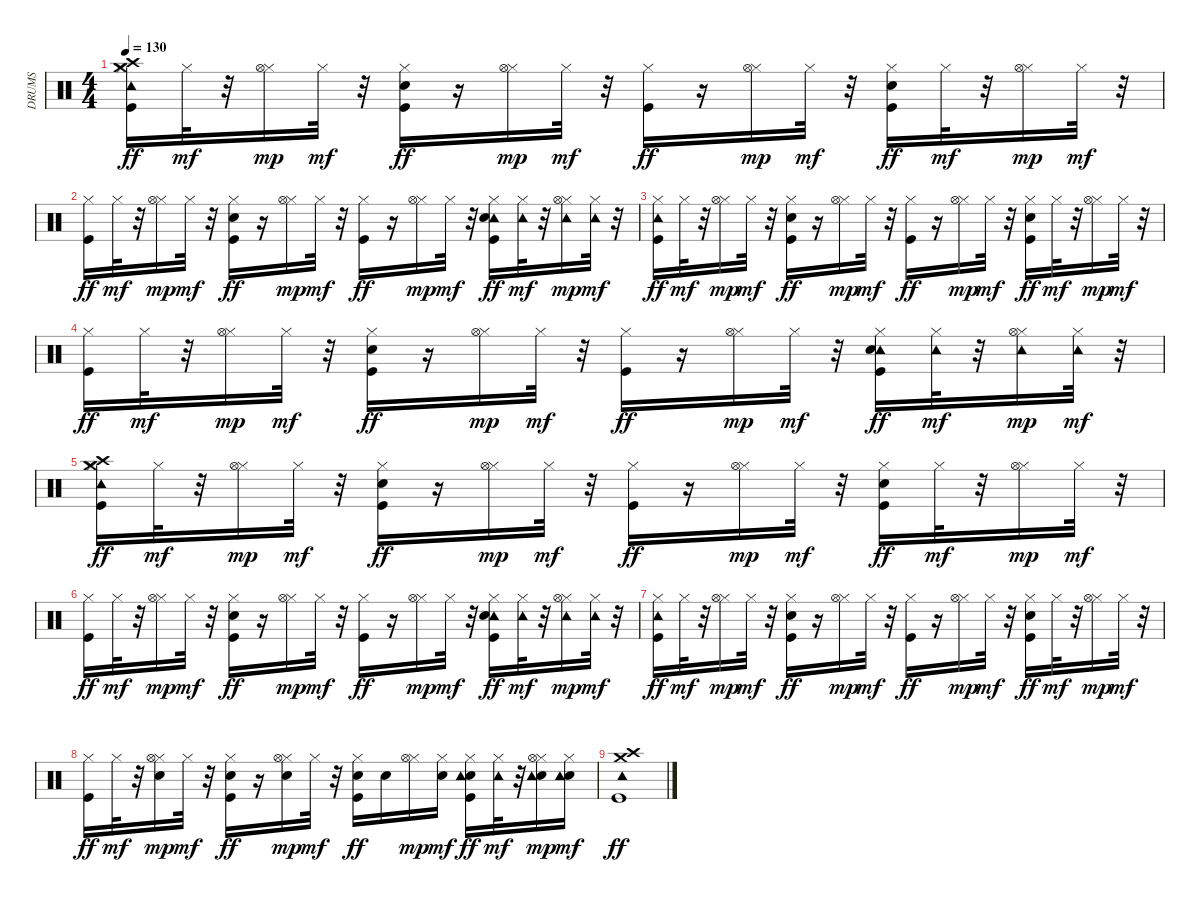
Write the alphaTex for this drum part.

\track ("DRUMS" "DRUMS") {instrument percussion}
\staff {score}
\articulation defaults
\ts (4 4)
\tempo 130
\clef neutral
\ks c
("Tambourine (hit)" "Crash high (hit)" "Crash medium (hit)" "Hi-Hat (closed)" "Kick (hit)").16{dy ff} "Hi-Hat (closed)".32{dy mf} r.32 ("Hi-Hat (closed)" "Hi-Hat (open)").16{dy mp} "Hi-Hat (closed)".32{dy mf} r.32 ("Electric Snare (hit)" "Hi-Hat (closed)" "Kick (hit)").16{dy ff} r.16 ("Hi-Hat (closed)" "Hi-Hat (open)").16{dy mp} "Hi-Hat (closed)".32{dy mf} r.32 ("Hi-Hat (closed)" "Kick (hit)").16{dy ff} r.16 ("Hi-Hat (closed)" "Hi-Hat (open)").16{dy mp} "Hi-Hat (closed)".32{dy mf} r.32 ("Electric Snare (hit)" "Hi-Hat (closed)" "Kick (hit)").16{dy ff} "Hi-Hat (closed)".32{dy mf} r.32 ("Hi-Hat (closed)" "Hi-Hat (open)").16{dy mp} "Hi-Hat (closed)".32{dy mf} r.32 |
("Hi-Hat (closed)" "Kick (hit)").16{dy ff} "Hi-Hat (closed)".32{dy mf} r.32 ("Hi-Hat (closed)" "Hi-Hat (open)").16{dy mp} "Hi-Hat (closed)".32{dy mf} r.32 ("Electric Snare (hit)" "Hi-Hat (closed)" "Kick (hit)").16{dy ff} r.16 ("Hi-Hat (closed)" "Hi-Hat (open)").16{dy mp} "Hi-Hat (closed)".32{dy mf} r.32 ("Hi-Hat (closed)" "Kick (hit)").16{dy ff} r.16 ("Hi-Hat (closed)" "Hi-Hat (open)").16{dy mp} "Hi-Hat (closed)".32{dy mf} r.32 ("Tambourine (hit)" "Electric Snare (hit)" "Hi-Hat (closed)" "Kick (hit)").16{dy ff} ("Tambourine (hit)" "Hi-Hat (closed)").32{dy mf} r.32 ("Tambourine (hit)" "Hi-Hat (closed)" "Hi-Hat (open)").16{dy mp} ("Tambourine (hit)" "Hi-Hat (closed)").32{dy mf} r.32 |
("Tambourine (hit)" "Hi-Hat (closed)" "Kick (hit)").16{dy ff} "Hi-Hat (closed)".32{dy mf} r.32 ("Hi-Hat (closed)" "Hi-Hat (open)").16{dy mp} "Hi-Hat (closed)".32{dy mf} r.32 ("Electric Snare (hit)" "Hi-Hat (closed)" "Kick (hit)").16{dy ff} r.16 ("Hi-Hat (closed)" "Hi-Hat (open)").16{dy mp} "Hi-Hat (closed)".32{dy mf} r.32 ("Hi-Hat (closed)" "Kick (hit)").16{dy ff} r.16 ("Hi-Hat (closed)" "Hi-Hat (open)").16{dy mp} "Hi-Hat (closed)".32{dy mf} r.32 ("Electric Snare (hit)" "Hi-Hat (closed)" "Kick (hit)").16{dy ff} "Hi-Hat (closed)".32{dy mf} r.32 ("Hi-Hat (closed)" "Hi-Hat (open)").16{dy mp} "Hi-Hat (closed)".32{dy mf} r.32 |
("Hi-Hat (closed)" "Kick (hit)").16{dy ff} "Hi-Hat (closed)".32{dy mf} r.32 ("Hi-Hat (closed)" "Hi-Hat (open)").16{dy mp} "Hi-Hat (closed)".32{dy mf} r.32 ("Electric Snare (hit)" "Hi-Hat (closed)" "Kick (hit)").16{dy ff} r.16 ("Hi-Hat (closed)" "Hi-Hat (open)").16{dy mp} "Hi-Hat (closed)".32{dy mf} r.32 ("Hi-Hat (closed)" "Kick (hit)").16{dy ff} r.16 ("Hi-Hat (closed)" "Hi-Hat (open)").16{dy mp} "Hi-Hat (closed)".32{dy mf} r.32 ("Tambourine (hit)" "Electric Snare (hit)" "Hi-Hat (closed)" "Kick (hit)").16{dy ff} ("Tambourine (hit)" "Hi-Hat (closed)").32{dy mf} r.32 ("Tambourine (hit)" "Hi-Hat (closed)" "Hi-Hat (open)").16{dy mp} ("Tambourine (hit)" "Hi-Hat (closed)").32{dy mf} r.32 |
("Tambourine (hit)" "Crash high (hit)" "Crash medium (hit)" "Hi-Hat (closed)" "Kick (hit)").16{dy ff} "Hi-Hat (closed)".32{dy mf} r.32 ("Hi-Hat (closed)" "Hi-Hat (open)").16{dy mp} "Hi-Hat (closed)".32{dy mf} r.32 ("Electric Snare (hit)" "Hi-Hat (closed)" "Kick (hit)").16{dy ff} r.16 ("Hi-Hat (closed)" "Hi-Hat (open)").16{dy mp} "Hi-Hat (closed)".32{dy mf} r.32 ("Hi-Hat (closed)" "Kick (hit)").16{dy ff} r.16 ("Hi-Hat (closed)" "Hi-Hat (open)").16{dy mp} "Hi-Hat (closed)".32{dy mf} r.32 ("Electric Snare (hit)" "Hi-Hat (closed)" "Kick (hit)").16{dy ff} "Hi-Hat (closed)".32{dy mf} r.32 ("Hi-Hat (closed)" "Hi-Hat (open)").16{dy mp} "Hi-Hat (closed)".32{dy mf} r.32 |
("Hi-Hat (closed)" "Kick (hit)").16{dy ff} "Hi-Hat (closed)".32{dy mf} r.32 ("Hi-Hat (closed)" "Hi-Hat (open)").16{dy mp} "Hi-Hat (closed)".32{dy mf} r.32 ("Electric Snare (hit)" "Hi-Hat (closed)" "Kick (hit)").16{dy ff} r.16 ("Hi-Hat (closed)" "Hi-Hat (open)").16{dy mp} "Hi-Hat (closed)".32{dy mf} r.32 ("Hi-Hat (closed)" "Kick (hit)").16{dy ff} r.16 ("Hi-Hat (closed)" "Hi-Hat (open)").16{dy mp} "Hi-Hat (closed)".32{dy mf} r.32 ("Tambourine (hit)" "Electric Snare (hit)" "Hi-Hat (closed)" "Kick (hit)").16{dy ff} ("Tambourine (hit)" "Hi-Hat (closed)").32{dy mf} r.32 ("Tambourine (hit)" "Hi-Hat (closed)" "Hi-Hat (open)").16{dy mp} ("Tambourine (hit)" "Hi-Hat (closed)").32{dy mf} r.32 |
("Tambourine (hit)" "Hi-Hat (closed)" "Kick (hit)").16{dy ff} "Hi-Hat (closed)".32{dy mf} r.32 ("Hi-Hat (closed)" "Hi-Hat (open)").16{dy mp} "Hi-Hat (closed)".32{dy mf} r.32 ("Electric Snare (hit)" "Hi-Hat (closed)" "Kick (hit)").16{dy ff} r.16 ("Hi-Hat (closed)" "Hi-Hat (open)").16{dy mp} "Hi-Hat (closed)".32{dy mf} r.32 ("Hi-Hat (closed)" "Kick (hit)").16{dy ff} r.16 ("Hi-Hat (closed)" "Hi-Hat (open)").16{dy mp} "Hi-Hat (closed)".32{dy mf} r.32 ("Electric Snare (hit)" "Hi-Hat (closed)" "Kick (hit)").16{dy ff} "Hi-Hat (closed)".32{dy mf} r.32 ("Hi-Hat (closed)" "Hi-Hat (open)").16{dy mp} "Hi-Hat (closed)".32{dy mf} r.32 |
("Hi-Hat (closed)" "Kick (hit)").16{dy ff} "Hi-Hat (closed)".32{dy mf} r.32 ("Electric Snare (hit)" "Hi-Hat (closed)" "Hi-Hat (open)").16{dy mp} "Hi-Hat (closed)".32{dy mf} r.32 ("Electric Snare (hit)" "Hi-Hat (closed)" "Kick (hit)").16{dy ff} r.16 ("Electric Snare (hit)" "Hi-Hat (closed)" "Hi-Hat (open)").16{dy mp} "Hi-Hat (closed)".32{dy mf} r.32 ("Electric Snare (hit)" "Hi-Hat (closed)" "Kick (hit)").16{dy ff} "Electric Snare (hit)".16 ("Hi-Hat (closed)" "Hi-Hat (open)").16{dy mp} ("Electric Snare (hit)" "Hi-Hat (closed)").16{dy mf} ("Electric Snare (hit)" "Tambourine (hit)" "Hi-Hat (closed)" "Kick (hit)").16{dy ff} ("Tambourine (hit)" "Hi-Hat (closed)").32{dy mf} r.32 ("Electric Snare (hit)" "Tambourine (hit)" "Hi-Hat (closed)" "Hi-Hat (open)").16{dy mp} ("Electric Snare (hit)" "Tambourine (hit)" "Hi-Hat (closed)").16{dy mf} |
("Crash high (hit)" "Crash medium (hit)" "Tambourine (hit)" "Kick (hit)").1{dy ff}
